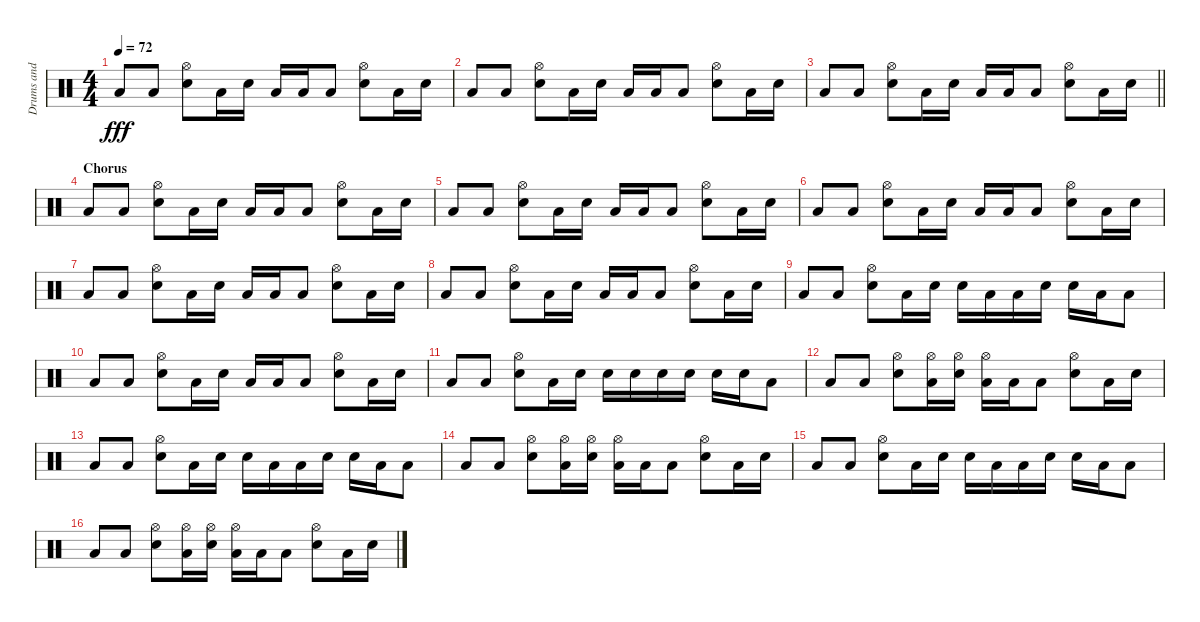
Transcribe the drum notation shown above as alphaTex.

\track ("Drums and Percussions" "Drums and ") {instrument percussion}
\staff {score}
\articulation defaults
\ts (4 4)
\tempo 72
\clef neutral
\ks c "Low Floor Tom (hit)".8{dy fff} "Low Floor Tom (hit)".8
("Hi-Hat (open)" "Snare (hit) 2").8 "Low Floor Tom (hit)".16 "Snare (hit) 2".16 "Low Floor Tom (hit)".16 "Low Floor Tom (hit)".16 "Low Floor Tom (hit)".8 ("Hi-Hat (open)" "Snare (hit) 2").8 "Low Floor Tom (hit)".16 "Snare (hit) 2".16 |
"Low Floor Tom (hit)".8 "Low Floor Tom (hit)".8 ("Hi-Hat (open)" "Snare (hit) 2").8 "Low Floor Tom (hit)".16 "Snare (hit) 2".16 "Low Floor Tom (hit)".16 "Low Floor Tom (hit)".16 "Low Floor Tom (hit)".8 ("Hi-Hat (open)" "Snare (hit) 2").8 "Low Floor Tom (hit)".16 "Snare (hit) 2".16 |
\barLineRight lightlight "Low Floor Tom (hit)".8 "Low Floor Tom (hit)".8
("Hi-Hat (open)" "Snare (hit) 2").8 "Low Floor Tom (hit)".16 "Snare (hit) 2".16 "Low Floor Tom (hit)".16 "Low Floor Tom (hit)".16 "Low Floor Tom (hit)".8 ("Hi-Hat (open)" "Snare (hit) 2").8 "Low Floor Tom (hit)".16 "Snare (hit) 2".16 |
\section ("" "Chorus")
"Low Floor Tom (hit)".8 "Low Floor Tom (hit)".8 ("Hi-Hat (open)" "Snare (hit) 2").8 "Low Floor Tom (hit)".16 "Snare (hit) 2".16 "Low Floor Tom (hit)".16 "Low Floor Tom (hit)".16 "Low Floor Tom (hit)".8 ("Hi-Hat (open)" "Snare (hit) 2").8 "Low Floor Tom (hit)".16 "Snare (hit) 2".16 |
"Low Floor Tom (hit)".8 "Low Floor Tom (hit)".8 ("Hi-Hat (open)" "Snare (hit) 2").8 "Low Floor Tom (hit)".16 "Snare (hit) 2".16 "Low Floor Tom (hit)".16 "Low Floor Tom (hit)".16 "Low Floor Tom (hit)".8 ("Hi-Hat (open)" "Snare (hit) 2").8 "Low Floor Tom (hit)".16 "Snare (hit) 2".16 |
"Low Floor Tom (hit)".8 "Low Floor Tom (hit)".8 ("Hi-Hat (open)" "Snare (hit) 2").8 "Low Floor Tom (hit)".16 "Snare (hit) 2".16 "Low Floor Tom (hit)".16 "Low Floor Tom (hit)".16 "Low Floor Tom (hit)".8 ("Hi-Hat (open)" "Snare (hit) 2").8 "Low Floor Tom (hit)".16 "Snare (hit) 2".16 |
"Low Floor Tom (hit)".8 "Low Floor Tom (hit)".8 ("Hi-Hat (open)" "Snare (hit) 2").8 "Low Floor Tom (hit)".16 "Snare (hit) 2".16 "Low Floor Tom (hit)".16 "Low Floor Tom (hit)".16 "Low Floor Tom (hit)".8 ("Hi-Hat (open)" "Snare (hit) 2").8 "Low Floor Tom (hit)".16 "Snare (hit) 2".16 |
"Low Floor Tom (hit)".8 "Low Floor Tom (hit)".8 ("Hi-Hat (open)" "Snare (hit) 2").8 "Low Floor Tom (hit)".16 "Snare (hit) 2".16 "Low Floor Tom (hit)".16 "Low Floor Tom (hit)".16 "Low Floor Tom (hit)".8 ("Hi-Hat (open)" "Snare (hit) 2").8 "Low Floor Tom (hit)".16 "Snare (hit) 2".16 |
"Low Floor Tom (hit)".8 "Low Floor Tom (hit)".8 ("Hi-Hat (open)" "Snare (hit) 2").8 "Low Floor Tom (hit)".16 "Snare (hit) 2".16 "Snare (hit) 2".16 "Low Floor Tom (hit)".16 "Low Floor Tom (hit)".16 "Snare (hit) 2".16 "Snare (hit) 2".16 "Low Floor Tom (hit)".16 "Low Floor Tom (hit)".8 |
"Low Floor Tom (hit)".8 "Low Floor Tom (hit)".8 ("Hi-Hat (open)" "Snare (hit) 2").8 "Low Floor Tom (hit)".16 "Snare (hit) 2".16 "Low Floor Tom (hit)".16 "Low Floor Tom (hit)".16 "Low Floor Tom (hit)".8 ("Hi-Hat (open)" "Snare (hit) 2").8 "Low Floor Tom (hit)".16 "Snare (hit) 2".16 |
"Low Floor Tom (hit)".8 "Low Floor Tom (hit)".8 ("Hi-Hat (open)" "Snare (hit) 2").8 "Low Floor Tom (hit)".16 "Snare (hit) 2".16 "Snare (hit) 2".16 "Snare (hit) 2".16 "Snare (hit) 2".16 "Snare (hit) 2".16 "Snare (hit) 2".16 "Snare (hit) 2".16 "Low Floor Tom (hit)".8 |
"Low Floor Tom (hit)".8 "Low Floor Tom (hit)".8 ("Hi-Hat (open)" "Snare (hit) 2").8 ("Hi-Hat (open)" "Low Floor Tom (hit)").16 ("Hi-Hat (open)" "Snare (hit) 2").16 ("Hi-Hat (open)" "Low Floor Tom (hit)").16 "Low Floor Tom (hit)".16 "Low Floor Tom (hit)".8 ("Hi-Hat (open)" "Snare (hit) 2").8 "Low Floor Tom (hit)".16 "Snare (hit) 2".16 |
"Low Floor Tom (hit)".8 "Low Floor Tom (hit)".8 ("Hi-Hat (open)" "Snare (hit) 2").8 "Low Floor Tom (hit)".16 "Snare (hit) 2".16 "Snare (hit) 2".16 "Low Floor Tom (hit)".16 "Low Floor Tom (hit)".16 "Snare (hit) 2".16 "Snare (hit) 2".16 "Low Floor Tom (hit)".16 "Low Floor Tom (hit)".8 |
"Low Floor Tom (hit)".8 "Low Floor Tom (hit)".8 ("Hi-Hat (open)" "Snare (hit) 2").8 ("Hi-Hat (open)" "Low Floor Tom (hit)").16 ("Hi-Hat (open)" "Snare (hit) 2").16 ("Hi-Hat (open)" "Low Floor Tom (hit)").16 "Low Floor Tom (hit)".16 "Low Floor Tom (hit)".8 ("Hi-Hat (open)" "Snare (hit) 2").8 "Low Floor Tom (hit)".16 "Snare (hit) 2".16 |
"Low Floor Tom (hit)".8 "Low Floor Tom (hit)".8 ("Hi-Hat (open)" "Snare (hit) 2").8 "Low Floor Tom (hit)".16 "Snare (hit) 2".16 "Snare (hit) 2".16 "Low Floor Tom (hit)".16 "Low Floor Tom (hit)".16 "Snare (hit) 2".16 "Snare (hit) 2".16 "Low Floor Tom (hit)".16 "Low Floor Tom (hit)".8 |
"Low Floor Tom (hit)".8 "Low Floor Tom (hit)".8 ("Hi-Hat (open)" "Snare (hit) 2").8 ("Hi-Hat (open)" "Low Floor Tom (hit)").16 ("Hi-Hat (open)" "Snare (hit) 2").16 ("Hi-Hat (open)" "Low Floor Tom (hit)").16 "Low Floor Tom (hit)".16 "Low Floor Tom (hit)".8 ("Hi-Hat (open)" "Snare (hit) 2").8 "Low Floor Tom (hit)".16 "Snare (hit) 2".16
